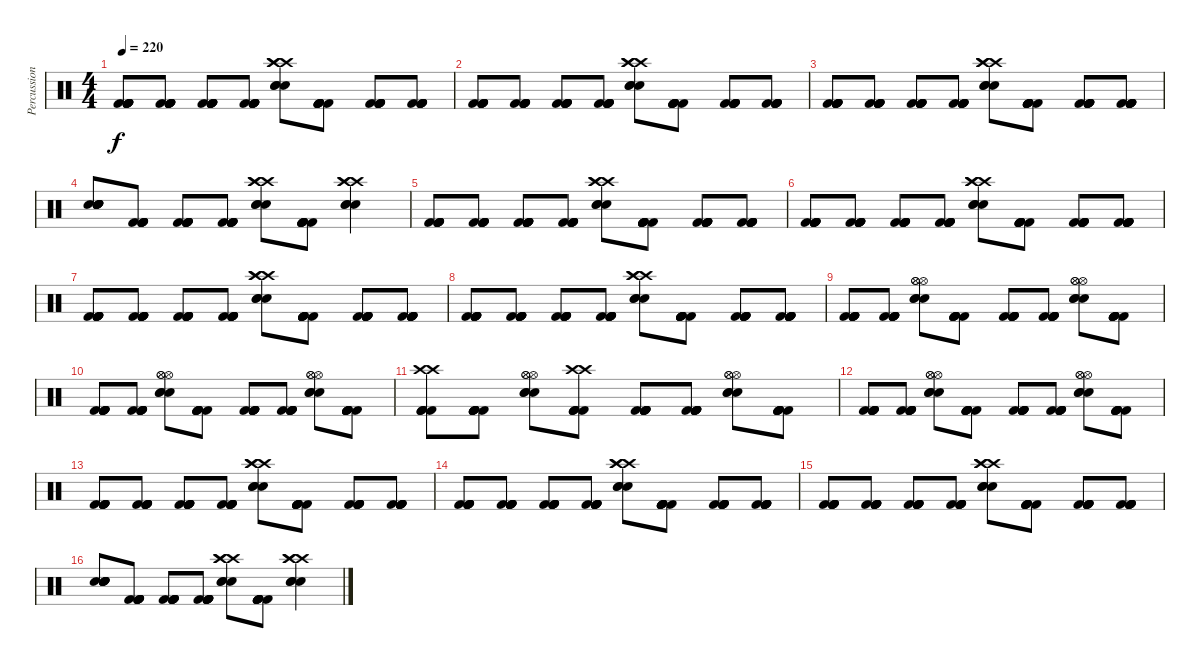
\track ("Percussion" "Percussion") {instrument percussion}
\staff {score}
\articulation defaults
\ts (4 4)
\tempo 220
\clef neutral
\ks c
("Kick (hit) 2" "Kick (hit) 2" "Kick (hit) 2" "Kick (hit) 2" "Kick (hit) 2" "Kick (hit) 2").8{dy f} ("Kick (hit) 2" "Kick (hit) 2" "Kick (hit) 2" "Kick (hit) 2" "Kick (hit) 2" "Kick (hit) 2").8 ("Kick (hit) 2" "Kick (hit) 2" "Kick (hit) 2" "Kick (hit) 2" "Kick (hit) 2" "Kick (hit) 2").8 ("Kick (hit) 2" "Kick (hit) 2" "Kick (hit) 2" "Kick (hit) 2" "Kick (hit) 2" "Kick (hit) 2").8 ("Crash high (hit)" "Crash high (hit)" "Crash high (hit)" "Snare (hit) 2" "Snare (hit) 2" "Snare (hit) 2").8 ("Kick (hit) 2" "Kick (hit) 2" "Kick (hit) 2" "Kick (hit) 2" "Kick (hit) 2" "Kick (hit) 2").8 ("Kick (hit) 2" "Kick (hit) 2" "Kick (hit) 2" "Kick (hit) 2" "Kick (hit) 2" "Kick (hit) 2").8 ("Kick (hit) 2" "Kick (hit) 2" "Kick (hit) 2" "Kick (hit) 2" "Kick (hit) 2" "Kick (hit) 2").8 |
("Kick (hit) 2" "Kick (hit) 2" "Kick (hit) 2" "Kick (hit) 2" "Kick (hit) 2" "Kick (hit) 2").8 ("Kick (hit) 2" "Kick (hit) 2" "Kick (hit) 2" "Kick (hit) 2" "Kick (hit) 2" "Kick (hit) 2").8 ("Kick (hit) 2" "Kick (hit) 2" "Kick (hit) 2" "Kick (hit) 2" "Kick (hit) 2" "Kick (hit) 2").8 ("Kick (hit) 2" "Kick (hit) 2" "Kick (hit) 2" "Kick (hit) 2" "Kick (hit) 2" "Kick (hit) 2").8 ("Crash high (hit)" "Crash high (hit)" "Crash high (hit)" "Snare (hit) 2" "Snare (hit) 2" "Snare (hit) 2").8 ("Kick (hit) 2" "Kick (hit) 2" "Kick (hit) 2" "Kick (hit) 2" "Kick (hit) 2" "Kick (hit) 2").8 ("Kick (hit) 2" "Kick (hit) 2" "Kick (hit) 2" "Kick (hit) 2" "Kick (hit) 2" "Kick (hit) 2").8 ("Kick (hit) 2" "Kick (hit) 2" "Kick (hit) 2" "Kick (hit) 2" "Kick (hit) 2" "Kick (hit) 2").8 |
("Kick (hit) 2" "Kick (hit) 2" "Kick (hit) 2" "Kick (hit) 2" "Kick (hit) 2" "Kick (hit) 2").8 ("Kick (hit) 2" "Kick (hit) 2" "Kick (hit) 2" "Kick (hit) 2" "Kick (hit) 2" "Kick (hit) 2").8 ("Kick (hit) 2" "Kick (hit) 2" "Kick (hit) 2" "Kick (hit) 2" "Kick (hit) 2" "Kick (hit) 2").8 ("Kick (hit) 2" "Kick (hit) 2" "Kick (hit) 2" "Kick (hit) 2" "Kick (hit) 2" "Kick (hit) 2").8 ("Crash high (hit)" "Crash high (hit)" "Crash high (hit)" "Snare (hit) 2" "Snare (hit) 2" "Snare (hit) 2").8 ("Kick (hit) 2" "Kick (hit) 2" "Kick (hit) 2" "Kick (hit) 2" "Kick (hit) 2" "Kick (hit) 2").8 ("Kick (hit) 2" "Kick (hit) 2" "Kick (hit) 2" "Kick (hit) 2" "Kick (hit) 2" "Kick (hit) 2").8 ("Kick (hit) 2" "Kick (hit) 2" "Kick (hit) 2" "Kick (hit) 2" "Kick (hit) 2" "Kick (hit) 2").8 |
("Snare (hit) 2" "Snare (hit) 2" "Snare (hit) 2" "Snare (hit) 2" "Snare (hit) 2" "Snare (hit) 2").8 ("Kick (hit) 2" "Kick (hit) 2" "Kick (hit) 2" "Kick (hit) 2" "Kick (hit) 2" "Kick (hit) 2").8 ("Kick (hit) 2" "Kick (hit) 2" "Kick (hit) 2" "Kick (hit) 2" "Kick (hit) 2" "Kick (hit) 2").8 ("Kick (hit) 2" "Kick (hit) 2" "Kick (hit) 2" "Kick (hit) 2" "Kick (hit) 2" "Kick (hit) 2").8 ("Crash high (hit)" "Crash high (hit)" "Crash high (hit)" "Snare (hit) 2" "Snare (hit) 2" "Snare (hit) 2").8 ("Kick (hit) 2" "Kick (hit) 2" "Kick (hit) 2" "Kick (hit) 2" "Kick (hit) 2" "Kick (hit) 2").8 ("Crash high (hit)" "Crash high (hit)" "Crash high (hit)" "Snare (hit) 2" "Snare (hit) 2" "Snare (hit) 2").4 |
("Kick (hit) 2" "Kick (hit) 2" "Kick (hit) 2" "Kick (hit) 2" "Kick (hit) 2" "Kick (hit) 2").8 ("Kick (hit) 2" "Kick (hit) 2" "Kick (hit) 2" "Kick (hit) 2" "Kick (hit) 2" "Kick (hit) 2").8 ("Kick (hit) 2" "Kick (hit) 2" "Kick (hit) 2" "Kick (hit) 2" "Kick (hit) 2" "Kick (hit) 2").8 ("Kick (hit) 2" "Kick (hit) 2" "Kick (hit) 2" "Kick (hit) 2" "Kick (hit) 2" "Kick (hit) 2").8 ("Crash high (hit)" "Crash high (hit)" "Crash high (hit)" "Snare (hit) 2" "Snare (hit) 2" "Snare (hit) 2").8 ("Kick (hit) 2" "Kick (hit) 2" "Kick (hit) 2" "Kick (hit) 2" "Kick (hit) 2" "Kick (hit) 2").8 ("Kick (hit) 2" "Kick (hit) 2" "Kick (hit) 2" "Kick (hit) 2" "Kick (hit) 2" "Kick (hit) 2").8 ("Kick (hit) 2" "Kick (hit) 2" "Kick (hit) 2" "Kick (hit) 2" "Kick (hit) 2" "Kick (hit) 2").8 |
("Kick (hit) 2" "Kick (hit) 2" "Kick (hit) 2" "Kick (hit) 2" "Kick (hit) 2" "Kick (hit) 2").8 ("Kick (hit) 2" "Kick (hit) 2" "Kick (hit) 2" "Kick (hit) 2" "Kick (hit) 2" "Kick (hit) 2").8 ("Kick (hit) 2" "Kick (hit) 2" "Kick (hit) 2" "Kick (hit) 2" "Kick (hit) 2" "Kick (hit) 2").8 ("Kick (hit) 2" "Kick (hit) 2" "Kick (hit) 2" "Kick (hit) 2" "Kick (hit) 2" "Kick (hit) 2").8 ("Crash high (hit)" "Crash high (hit)" "Crash high (hit)" "Snare (hit) 2" "Snare (hit) 2" "Snare (hit) 2").8 ("Kick (hit) 2" "Kick (hit) 2" "Kick (hit) 2" "Kick (hit) 2" "Kick (hit) 2" "Kick (hit) 2").8 ("Kick (hit) 2" "Kick (hit) 2" "Kick (hit) 2" "Kick (hit) 2" "Kick (hit) 2" "Kick (hit) 2").8 ("Kick (hit) 2" "Kick (hit) 2" "Kick (hit) 2" "Kick (hit) 2" "Kick (hit) 2" "Kick (hit) 2").8 |
("Kick (hit) 2" "Kick (hit) 2" "Kick (hit) 2" "Kick (hit) 2" "Kick (hit) 2" "Kick (hit) 2").8 ("Kick (hit) 2" "Kick (hit) 2" "Kick (hit) 2" "Kick (hit) 2" "Kick (hit) 2" "Kick (hit) 2").8 ("Kick (hit) 2" "Kick (hit) 2" "Kick (hit) 2" "Kick (hit) 2" "Kick (hit) 2" "Kick (hit) 2").8 ("Kick (hit) 2" "Kick (hit) 2" "Kick (hit) 2" "Kick (hit) 2" "Kick (hit) 2" "Kick (hit) 2").8 ("Crash high (hit)" "Crash high (hit)" "Crash high (hit)" "Snare (hit) 2" "Snare (hit) 2" "Snare (hit) 2").8 ("Kick (hit) 2" "Kick (hit) 2" "Kick (hit) 2" "Kick (hit) 2" "Kick (hit) 2" "Kick (hit) 2").8 ("Kick (hit) 2" "Kick (hit) 2" "Kick (hit) 2" "Kick (hit) 2" "Kick (hit) 2" "Kick (hit) 2").8 ("Kick (hit) 2" "Kick (hit) 2" "Kick (hit) 2" "Kick (hit) 2" "Kick (hit) 2" "Kick (hit) 2").8 |
("Kick (hit) 2" "Kick (hit) 2" "Kick (hit) 2" "Kick (hit) 2" "Kick (hit) 2" "Kick (hit) 2").8 ("Kick (hit) 2" "Kick (hit) 2" "Kick (hit) 2" "Kick (hit) 2" "Kick (hit) 2" "Kick (hit) 2").8 ("Kick (hit) 2" "Kick (hit) 2" "Kick (hit) 2" "Kick (hit) 2" "Kick (hit) 2" "Kick (hit) 2").8 ("Kick (hit) 2" "Kick (hit) 2" "Kick (hit) 2" "Kick (hit) 2" "Kick (hit) 2" "Kick (hit) 2").8 ("Crash high (hit)" "Crash high (hit)" "Crash high (hit)" "Snare (hit) 2" "Snare (hit) 2" "Snare (hit) 2").8 ("Kick (hit) 2" "Kick (hit) 2" "Kick (hit) 2" "Kick (hit) 2" "Kick (hit) 2" "Kick (hit) 2").8 ("Kick (hit) 2" "Kick (hit) 2" "Kick (hit) 2" "Kick (hit) 2" "Kick (hit) 2" "Kick (hit) 2").8 ("Kick (hit) 2" "Kick (hit) 2" "Kick (hit) 2" "Kick (hit) 2" "Kick (hit) 2" "Kick (hit) 2").8 |
("Kick (hit) 2" "Kick (hit) 2" "Kick (hit) 2" "Kick (hit) 2" "Kick (hit) 2" "Kick (hit) 2").8 ("Kick (hit) 2" "Kick (hit) 2" "Kick (hit) 2" "Kick (hit) 2" "Kick (hit) 2" "Kick (hit) 2").8 ("Hi-Hat (open)" "Hi-Hat (open)" "Hi-Hat (open)" "Snare (hit) 2" "Snare (hit) 2" "Snare (hit) 2").8 ("Kick (hit) 2" "Kick (hit) 2" "Kick (hit) 2" "Kick (hit) 2" "Kick (hit) 2" "Kick (hit) 2").8 ("Kick (hit) 2" "Kick (hit) 2" "Kick (hit) 2" "Kick (hit) 2" "Kick (hit) 2" "Kick (hit) 2").8 ("Kick (hit) 2" "Kick (hit) 2" "Kick (hit) 2" "Kick (hit) 2" "Kick (hit) 2" "Kick (hit) 2").8 ("Hi-Hat (open)" "Hi-Hat (open)" "Hi-Hat (open)" "Snare (hit) 2" "Snare (hit) 2" "Snare (hit) 2").8 ("Kick (hit) 2" "Kick (hit) 2" "Kick (hit) 2" "Kick (hit) 2" "Kick (hit) 2" "Kick (hit) 2").8 |
("Kick (hit) 2" "Kick (hit) 2" "Kick (hit) 2" "Kick (hit) 2" "Kick (hit) 2" "Kick (hit) 2").8 ("Kick (hit) 2" "Kick (hit) 2" "Kick (hit) 2" "Kick (hit) 2" "Kick (hit) 2" "Kick (hit) 2").8 ("Hi-Hat (open)" "Hi-Hat (open)" "Hi-Hat (open)" "Snare (hit) 2" "Snare (hit) 2" "Snare (hit) 2").8 ("Kick (hit) 2" "Kick (hit) 2" "Kick (hit) 2" "Kick (hit) 2" "Kick (hit) 2" "Kick (hit) 2").8 ("Kick (hit) 2" "Kick (hit) 2" "Kick (hit) 2" "Kick (hit) 2" "Kick (hit) 2" "Kick (hit) 2").8 ("Kick (hit) 2" "Kick (hit) 2" "Kick (hit) 2" "Kick (hit) 2" "Kick (hit) 2" "Kick (hit) 2").8 ("Hi-Hat (open)" "Hi-Hat (open)" "Hi-Hat (open)" "Snare (hit) 2" "Snare (hit) 2" "Snare (hit) 2").8 ("Kick (hit) 2" "Kick (hit) 2" "Kick (hit) 2" "Kick (hit) 2" "Kick (hit) 2" "Kick (hit) 2").8 |
("Crash high (hit)" "Crash high (hit)" "Kick (hit) 2" "Kick (hit) 2" "Kick (hit) 2" "Kick (hit) 2").8 ("Kick (hit) 2" "Kick (hit) 2" "Kick (hit) 2" "Kick (hit) 2" "Kick (hit) 2" "Kick (hit) 2").8 ("Hi-Hat (open)" "Hi-Hat (open)" "Hi-Hat (open)" "Snare (hit) 2" "Snare (hit) 2" "Snare (hit) 2").8 ("Crash high (hit)" "Crash high (hit)" "Kick (hit) 2" "Kick (hit) 2" "Kick (hit) 2" "Kick (hit) 2").8 ("Kick (hit) 2" "Kick (hit) 2" "Kick (hit) 2" "Kick (hit) 2" "Kick (hit) 2" "Kick (hit) 2").8 ("Kick (hit) 2" "Kick (hit) 2" "Kick (hit) 2" "Kick (hit) 2" "Kick (hit) 2" "Kick (hit) 2").8 ("Hi-Hat (open)" "Hi-Hat (open)" "Hi-Hat (open)" "Snare (hit) 2" "Snare (hit) 2" "Snare (hit) 2").8 ("Kick (hit) 2" "Kick (hit) 2" "Kick (hit) 2" "Kick (hit) 2" "Kick (hit) 2" "Kick (hit) 2").8 |
("Kick (hit) 2" "Kick (hit) 2" "Kick (hit) 2" "Kick (hit) 2" "Kick (hit) 2" "Kick (hit) 2").8 ("Kick (hit) 2" "Kick (hit) 2" "Kick (hit) 2" "Kick (hit) 2" "Kick (hit) 2" "Kick (hit) 2").8 ("Hi-Hat (open)" "Hi-Hat (open)" "Hi-Hat (open)" "Snare (hit) 2" "Snare (hit) 2" "Snare (hit) 2").8 ("Kick (hit) 2" "Kick (hit) 2" "Kick (hit) 2" "Kick (hit) 2" "Kick (hit) 2" "Kick (hit) 2").8 ("Kick (hit) 2" "Kick (hit) 2" "Kick (hit) 2" "Kick (hit) 2" "Kick (hit) 2" "Kick (hit) 2").8 ("Kick (hit) 2" "Kick (hit) 2" "Kick (hit) 2" "Kick (hit) 2" "Kick (hit) 2" "Kick (hit) 2").8 ("Hi-Hat (open)" "Hi-Hat (open)" "Hi-Hat (open)" "Snare (hit) 2" "Snare (hit) 2" "Snare (hit) 2").8 ("Kick (hit) 2" "Kick (hit) 2" "Kick (hit) 2" "Kick (hit) 2" "Kick (hit) 2" "Kick (hit) 2").8 |
("Kick (hit) 2" "Kick (hit) 2" "Kick (hit) 2" "Kick (hit) 2" "Kick (hit) 2" "Kick (hit) 2").8 ("Kick (hit) 2" "Kick (hit) 2" "Kick (hit) 2" "Kick (hit) 2" "Kick (hit) 2" "Kick (hit) 2").8 ("Kick (hit) 2" "Kick (hit) 2" "Kick (hit) 2" "Kick (hit) 2" "Kick (hit) 2" "Kick (hit) 2").8 ("Kick (hit) 2" "Kick (hit) 2" "Kick (hit) 2" "Kick (hit) 2" "Kick (hit) 2" "Kick (hit) 2").8 ("Crash high (hit)" "Crash high (hit)" "Crash high (hit)" "Snare (hit) 2" "Snare (hit) 2" "Snare (hit) 2").8 ("Kick (hit) 2" "Kick (hit) 2" "Kick (hit) 2" "Kick (hit) 2" "Kick (hit) 2" "Kick (hit) 2").8 ("Kick (hit) 2" "Kick (hit) 2" "Kick (hit) 2" "Kick (hit) 2" "Kick (hit) 2" "Kick (hit) 2").8 ("Kick (hit) 2" "Kick (hit) 2" "Kick (hit) 2" "Kick (hit) 2" "Kick (hit) 2" "Kick (hit) 2").8 |
("Kick (hit) 2" "Kick (hit) 2" "Kick (hit) 2" "Kick (hit) 2" "Kick (hit) 2" "Kick (hit) 2").8 ("Kick (hit) 2" "Kick (hit) 2" "Kick (hit) 2" "Kick (hit) 2" "Kick (hit) 2" "Kick (hit) 2").8 ("Kick (hit) 2" "Kick (hit) 2" "Kick (hit) 2" "Kick (hit) 2" "Kick (hit) 2" "Kick (hit) 2").8 ("Kick (hit) 2" "Kick (hit) 2" "Kick (hit) 2" "Kick (hit) 2" "Kick (hit) 2" "Kick (hit) 2").8 ("Crash high (hit)" "Crash high (hit)" "Crash high (hit)" "Snare (hit) 2" "Snare (hit) 2" "Snare (hit) 2").8 ("Kick (hit) 2" "Kick (hit) 2" "Kick (hit) 2" "Kick (hit) 2" "Kick (hit) 2" "Kick (hit) 2").8 ("Kick (hit) 2" "Kick (hit) 2" "Kick (hit) 2" "Kick (hit) 2" "Kick (hit) 2" "Kick (hit) 2").8 ("Kick (hit) 2" "Kick (hit) 2" "Kick (hit) 2" "Kick (hit) 2" "Kick (hit) 2" "Kick (hit) 2").8 |
("Kick (hit) 2" "Kick (hit) 2" "Kick (hit) 2" "Kick (hit) 2" "Kick (hit) 2" "Kick (hit) 2").8 ("Kick (hit) 2" "Kick (hit) 2" "Kick (hit) 2" "Kick (hit) 2" "Kick (hit) 2" "Kick (hit) 2").8 ("Kick (hit) 2" "Kick (hit) 2" "Kick (hit) 2" "Kick (hit) 2" "Kick (hit) 2" "Kick (hit) 2").8 ("Kick (hit) 2" "Kick (hit) 2" "Kick (hit) 2" "Kick (hit) 2" "Kick (hit) 2" "Kick (hit) 2").8 ("Crash high (hit)" "Crash high (hit)" "Crash high (hit)" "Snare (hit) 2" "Snare (hit) 2" "Snare (hit) 2").8 ("Kick (hit) 2" "Kick (hit) 2" "Kick (hit) 2" "Kick (hit) 2" "Kick (hit) 2" "Kick (hit) 2").8 ("Kick (hit) 2" "Kick (hit) 2" "Kick (hit) 2" "Kick (hit) 2" "Kick (hit) 2" "Kick (hit) 2").8 ("Kick (hit) 2" "Kick (hit) 2" "Kick (hit) 2" "Kick (hit) 2" "Kick (hit) 2" "Kick (hit) 2").8 |
("Snare (hit) 2" "Snare (hit) 2" "Snare (hit) 2" "Snare (hit) 2" "Snare (hit) 2" "Snare (hit) 2").8 ("Kick (hit) 2" "Kick (hit) 2" "Kick (hit) 2" "Kick (hit) 2" "Kick (hit) 2" "Kick (hit) 2").8 ("Kick (hit) 2" "Kick (hit) 2" "Kick (hit) 2" "Kick (hit) 2" "Kick (hit) 2" "Kick (hit) 2").8 ("Kick (hit) 2" "Kick (hit) 2" "Kick (hit) 2" "Kick (hit) 2" "Kick (hit) 2" "Kick (hit) 2").8 ("Crash high (hit)" "Crash high (hit)" "Crash high (hit)" "Snare (hit) 2" "Snare (hit) 2" "Snare (hit) 2").8 ("Kick (hit) 2" "Kick (hit) 2" "Kick (hit) 2" "Kick (hit) 2" "Kick (hit) 2" "Kick (hit) 2").8 ("Crash high (hit)" "Crash high (hit)" "Crash high (hit)" "Snare (hit) 2" "Snare (hit) 2" "Snare (hit) 2").4
